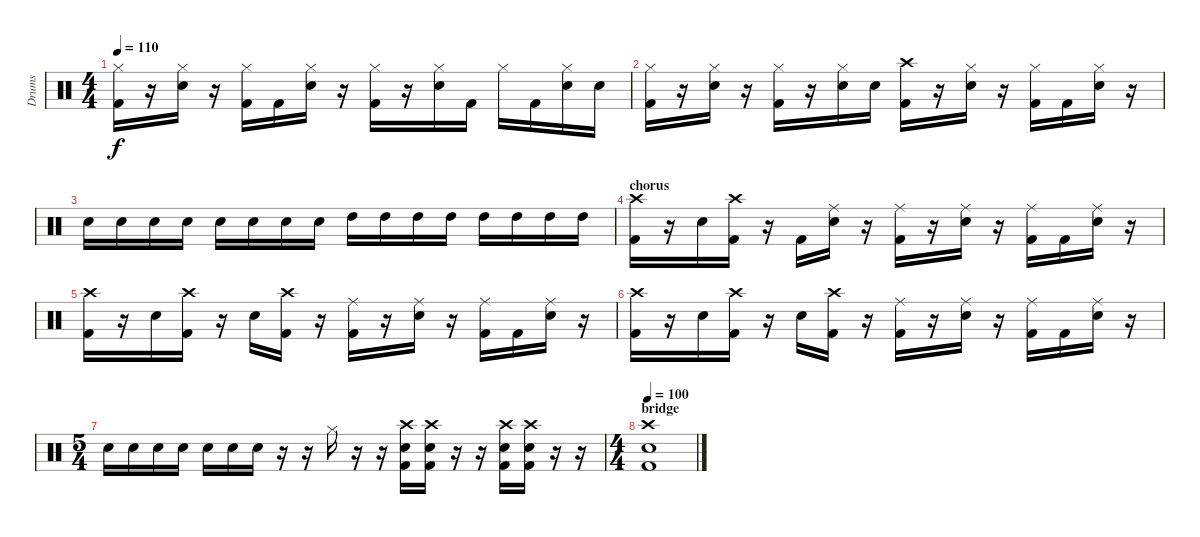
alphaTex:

\track ("Drums" "Drums") {instrument percussion}
\staff {score}
\articulation defaults
\ts (4 4)
\tempo 110
\clef neutral
\ks c
("Hi-Hat (closed)" "Kick (hit) 2").16{dy f} r.16 ("Hi-Hat (closed)" "Electric Snare (hit)").16 r.16 ("Hi-Hat (closed)" "Kick (hit) 2").16 "Kick (hit) 2".16 ("Hi-Hat (closed)" "Electric Snare (hit)").16 r.16 ("Hi-Hat (closed)" "Kick (hit) 2").16 r.16 ("Hi-Hat (closed)" "Electric Snare (hit)").16 "Kick (hit) 2".16 "Hi-Hat (closed)".16 "Kick (hit) 2".16 ("Hi-Hat (closed)" "Electric Snare (hit)").16 "Electric Snare (hit)".16 |
("Hi-Hat (closed)" "Kick (hit) 2").16 r.16 ("Hi-Hat (closed)" "Electric Snare (hit)").16 r.16 ("Hi-Hat (closed)" "Kick (hit) 2").16 r.16 ("Hi-Hat (closed)" "Electric Snare (hit)").16 "Electric Snare (hit)".16 ("Crash high (hit)" "Kick (hit) 2").16 r.16 ("Hi-Hat (closed)" "Electric Snare (hit)").16 r.16 ("Hi-Hat (closed)" "Kick (hit) 2").16 "Kick (hit) 2".16 ("Hi-Hat (closed)" "Electric Snare (hit)").16 r.16 |
"Electric Snare (hit)".16 "Electric Snare (hit)".16 "Electric Snare (hit)".16 "Electric Snare (hit)".16 "Electric Snare (hit)".16 "Electric Snare (hit)".16 "Electric Snare (hit)".16 "Electric Snare (hit)".16 "High Tom (hit)".16 "High Tom (hit)".16 "High Tom (hit)".16 "High Tom (hit)".16 "High Tom (hit)".16 "High Tom (hit)".16 "High Tom (hit)".16 "High Tom (hit)".16 |
\section ("" "chorus")
("Crash high (hit)" "Kick (hit) 2").16 r.16 "Electric Snare (hit)".16 ("Crash high (hit)" "Kick (hit) 2").16 r.16 "Kick (hit) 2".16 ("Ride (middle)" "Electric Snare (hit)").16 r.16 ("Ride (middle)" "Kick (hit) 2").16 r.16 ("Ride (middle)" "Electric Snare (hit)").16 r.16 ("Ride (middle)" "Kick (hit) 2").16 "Kick (hit) 2".16 ("Ride (middle)" "Electric Snare (hit)").16 r.16 |
("Crash high (hit)" "Kick (hit) 2").16 r.16 "Electric Snare (hit)".16 ("Crash high (hit)" "Kick (hit) 2").16 r.16 "Electric Snare (hit)".16 ("Crash high (hit)" "Kick (hit) 2").16 r.16 ("Ride (middle)" "Kick (hit) 2").16 r.16 ("Ride (middle)" "Electric Snare (hit)").16 r.16 ("Ride (middle)" "Kick (hit) 2").16 "Kick (hit) 2".16 ("Ride (middle)" "Electric Snare (hit)").16 r.16 |
("Crash high (hit)" "Kick (hit) 2").16 r.16 "Electric Snare (hit)".16 ("Crash high (hit)" "Kick (hit) 2").16 r.16 "Electric Snare (hit)".16 ("Crash high (hit)" "Kick (hit) 2").16 r.16 ("Ride (middle)" "Kick (hit) 2").16 r.16 ("Ride (middle)" "Electric Snare (hit)").16 r.16 ("Ride (middle)" "Kick (hit) 2").16 "Kick (hit) 2".16 ("Ride (middle)" "Electric Snare (hit)").16 r.16 |
\ts (5 4)
"Electric Snare (hit)".16 "Electric Snare (hit)".16 "Electric Snare (hit)".16 "Electric Snare (hit)".16 "Electric Snare (hit)".16 "Electric Snare (hit)".16 "Electric Snare (hit)".16 r.16 r.16 "Hi-Hat (closed)".16 r.16 r.16 ("Electric Snare (hit)" "Crash high (hit)" "Kick (hit) 2").16 ("Electric Snare (hit)" "Crash high (hit)" "Kick (hit) 2").16 r.16 r.16 ("Electric Snare (hit)" "Crash high (hit)" "Kick (hit) 2").16 ("Electric Snare (hit)" "Crash high (hit)" "Kick (hit) 2").16 r.16 r.16 |
\ts (4 4)
\section ("" "bridge")
\tempo 100
("Crash high (hit)" "Electric Snare (hit)" "Kick (hit) 2").1
